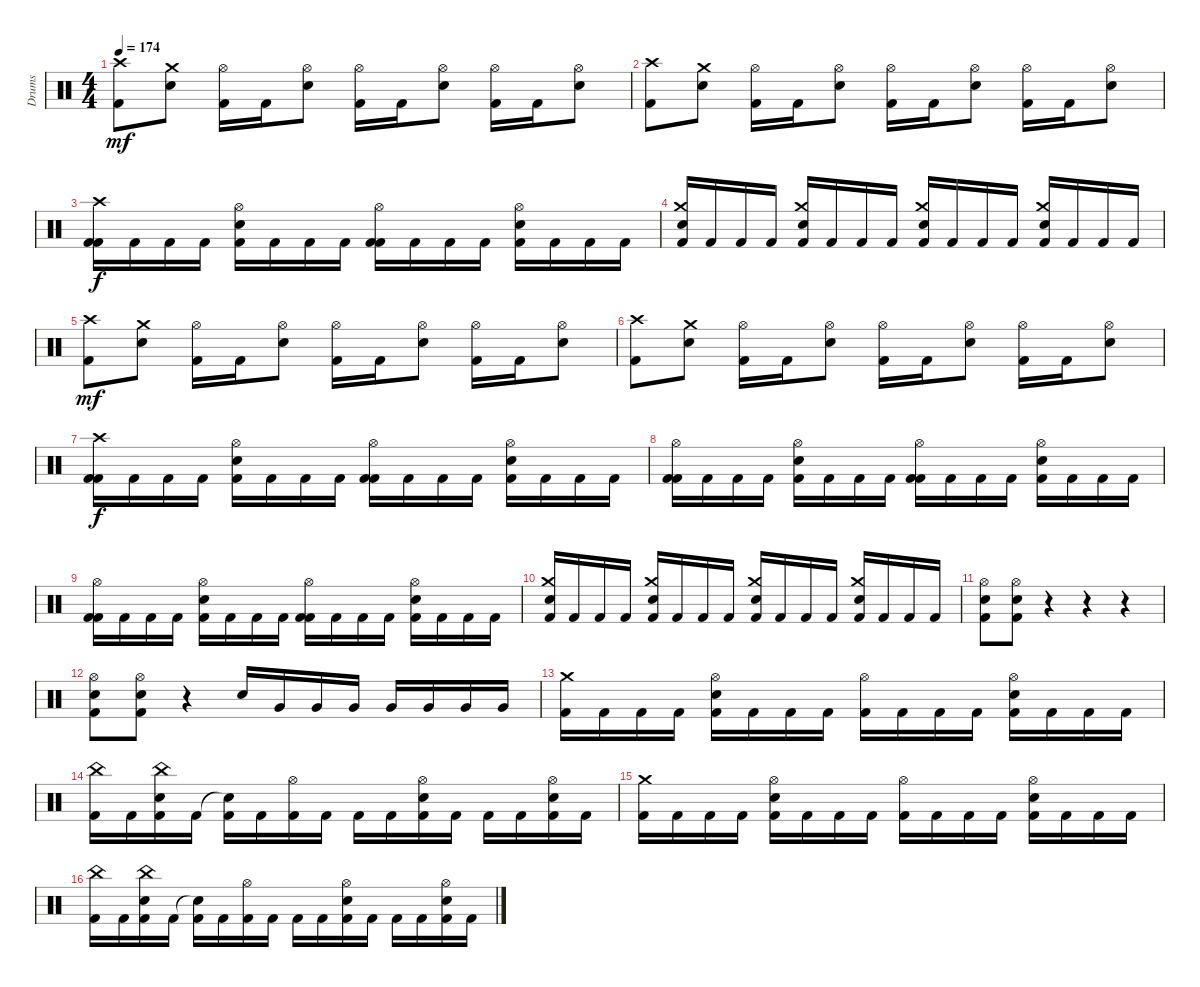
\track ("Drums" "Drums") {instrument percussion}
\staff {score}
\articulation defaults
\ts (4 4)
\tempo 174
\clef neutral
\ks c
("Crash high (hit)" "Kick (hit) 2").8{dy mf} ("Crash medium (hit)" "Electric Snare (hit)").8 ("Hi-Hat (open)" "Kick (hit) 2").16 "Kick (hit) 2".16 ("Hi-Hat (open)" "Electric Snare (hit)").8 ("Hi-Hat (open)" "Kick (hit) 2").16 "Kick (hit) 2".16 ("Hi-Hat (open)" "Electric Snare (hit)").8 ("Hi-Hat (open)" "Kick (hit) 2").16 "Kick (hit) 2".16 ("Hi-Hat (open)" "Electric Snare (hit)").8 |
("Crash high (hit)" "Kick (hit) 2").8 ("Crash medium (hit)" "Electric Snare (hit)").8 ("Hi-Hat (open)" "Kick (hit) 2").16 "Kick (hit) 2".16 ("Hi-Hat (open)" "Electric Snare (hit)").8 ("Hi-Hat (open)" "Kick (hit) 2").16 "Kick (hit) 2".16 ("Hi-Hat (open)" "Electric Snare (hit)").8 ("Hi-Hat (open)" "Kick (hit) 2").16 "Kick (hit) 2".16 ("Hi-Hat (open)" "Electric Snare (hit)").8 |
("Crash high (hit)" "Kick (hit) 2" "Kick (hit) 2").16{dy f} "Kick (hit) 2".16 "Kick (hit) 2".16 "Kick (hit) 2".16 ("Hi-Hat (open)" "Electric Snare (hit)" "Kick (hit) 2").16 "Kick (hit) 2".16 "Kick (hit) 2".16 "Kick (hit) 2".16 ("Hi-Hat (open)" "Kick (hit) 2" "Kick (hit) 2").16 "Kick (hit) 2".16 "Kick (hit) 2".16 "Kick (hit) 2".16 ("Hi-Hat (open)" "Electric Snare (hit)" "Kick (hit) 2").16 "Kick (hit) 2".16 "Kick (hit) 2".16 "Kick (hit) 2".16 |
("Crash medium (hit)" "Electric Snare (hit)" "Kick (hit) 2").16 "Kick (hit) 2".16 "Kick (hit) 2".16 "Kick (hit) 2".16 ("Crash medium (hit)" "Electric Snare (hit)" "Kick (hit) 2").16 "Kick (hit) 2".16 "Kick (hit) 2".16 "Kick (hit) 2".16 ("Crash medium (hit)" "Electric Snare (hit)" "Kick (hit) 2").16 "Kick (hit) 2".16 "Kick (hit) 2".16 "Kick (hit) 2".16 ("Crash medium (hit)" "Electric Snare (hit)" "Kick (hit) 2").16 "Kick (hit) 2".16 "Kick (hit) 2".16 "Kick (hit) 2".16 |
("Crash high (hit)" "Kick (hit) 2").8{dy mf} ("Crash medium (hit)" "Electric Snare (hit)").8 ("Hi-Hat (open)" "Kick (hit) 2").16 "Kick (hit) 2".16 ("Hi-Hat (open)" "Electric Snare (hit)").8 ("Hi-Hat (open)" "Kick (hit) 2").16 "Kick (hit) 2".16 ("Hi-Hat (open)" "Electric Snare (hit)").8 ("Hi-Hat (open)" "Kick (hit) 2").16 "Kick (hit) 2".16 ("Hi-Hat (open)" "Electric Snare (hit)").8 |
("Crash high (hit)" "Kick (hit) 2").8 ("Crash medium (hit)" "Electric Snare (hit)").8 ("Hi-Hat (open)" "Kick (hit) 2").16 "Kick (hit) 2".16 ("Hi-Hat (open)" "Electric Snare (hit)").8 ("Hi-Hat (open)" "Kick (hit) 2").16 "Kick (hit) 2".16 ("Hi-Hat (open)" "Electric Snare (hit)").8 ("Hi-Hat (open)" "Kick (hit) 2").16 "Kick (hit) 2".16 ("Hi-Hat (open)" "Electric Snare (hit)").8 |
("Crash high (hit)" "Kick (hit) 2" "Kick (hit) 2").16{dy f} "Kick (hit) 2".16 "Kick (hit) 2".16 "Kick (hit) 2".16 ("Hi-Hat (open)" "Electric Snare (hit)" "Kick (hit) 2").16 "Kick (hit) 2".16 "Kick (hit) 2".16 "Kick (hit) 2".16 ("Hi-Hat (open)" "Kick (hit) 2" "Kick (hit) 2").16 "Kick (hit) 2".16 "Kick (hit) 2".16 "Kick (hit) 2".16 ("Hi-Hat (open)" "Electric Snare (hit)" "Kick (hit) 2").16 "Kick (hit) 2".16 "Kick (hit) 2".16 "Kick (hit) 2".16 |
("Hi-Hat (open)" "Kick (hit) 2" "Kick (hit) 2").16 "Kick (hit) 2".16 "Kick (hit) 2".16 "Kick (hit) 2".16 ("Hi-Hat (open)" "Electric Snare (hit)" "Kick (hit) 2").16 "Kick (hit) 2".16 "Kick (hit) 2".16 "Kick (hit) 2".16 ("Hi-Hat (open)" "Kick (hit) 2" "Kick (hit) 2").16 "Kick (hit) 2".16 "Kick (hit) 2".16 "Kick (hit) 2".16 ("Hi-Hat (open)" "Electric Snare (hit)" "Kick (hit) 2").16 "Kick (hit) 2".16 "Kick (hit) 2".16 "Kick (hit) 2".16 |
("Hi-Hat (open)" "Kick (hit) 2" "Kick (hit) 2").16 "Kick (hit) 2".16 "Kick (hit) 2".16 "Kick (hit) 2".16 ("Hi-Hat (open)" "Electric Snare (hit)" "Kick (hit) 2").16 "Kick (hit) 2".16 "Kick (hit) 2".16 "Kick (hit) 2".16 ("Hi-Hat (open)" "Kick (hit) 2" "Kick (hit) 2").16 "Kick (hit) 2".16 "Kick (hit) 2".16 "Kick (hit) 2".16 ("Hi-Hat (open)" "Electric Snare (hit)" "Kick (hit) 2").16 "Kick (hit) 2".16 "Kick (hit) 2".16 "Kick (hit) 2".16 |
("Crash medium (hit)" "Electric Snare (hit)" "Kick (hit) 2").16 "Kick (hit) 2".16 "Kick (hit) 2".16 "Kick (hit) 2".16 ("Crash medium (hit)" "Electric Snare (hit)" "Kick (hit) 2").16 "Kick (hit) 2".16 "Kick (hit) 2".16 "Kick (hit) 2".16 ("Crash medium (hit)" "Electric Snare (hit)" "Kick (hit) 2").16 "Kick (hit) 2".16 "Kick (hit) 2".16 "Kick (hit) 2".16 ("Crash medium (hit)" "Electric Snare (hit)" "Kick (hit) 2").16 "Kick (hit) 2".16 "Kick (hit) 2".16 "Kick (hit) 2".16 |
("Hi-Hat (open)" "Electric Snare (hit)" "Kick (hit) 2").8 ("Hi-Hat (open)" "Electric Snare (hit)" "Kick (hit) 2").8 r.4 r.4 r.4 |
("Hi-Hat (open)" "Electric Snare (hit)" "Kick (hit) 2").8 ("Hi-Hat (open)" "Electric Snare (hit)" "Kick (hit) 2").8 r.4 "Electric Snare (hit)".16 "Very Low Tom (hit)".16 "Very Low Tom (hit)".16 "Very Low Tom (hit)".16 "Very Low Tom (hit)".16 "Very Low Tom (hit)".16 "Very Low Tom (hit)".16 "Very Low Tom (hit)".16 |
("Crash medium (hit)" "Kick (hit) 2").16 "Kick (hit) 2".16 "Kick (hit) 2".16 "Kick (hit) 2".16 ("Hi-Hat (open)" "Kick (hit) 2" "Electric Snare (hit)").16 "Kick (hit) 2".16 "Kick (hit) 2".16 "Kick (hit) 2".16 ("Hi-Hat (open)" "Kick (hit) 2").16 "Kick (hit) 2".16 "Kick (hit) 2".16 "Kick (hit) 2".16 ("Hi-Hat (open)" "Kick (hit) 2" "Electric Snare (hit)").16 "Kick (hit) 2".16 "Kick (hit) 2".16 "Kick (hit) 2".16 |
("China (hit)" "Kick (hit) 2").16 "Kick (hit) 2".16 ("China (hit)" "Kick (hit) 2" "Electric Snare (hit)").16 "Kick (hit) 2".16 ("Snare (hit)"{t} "Kick (hit) 2").16 "Kick (hit) 2".16 ("Hi-Hat (open)" "Kick (hit) 2").16 "Kick (hit) 2".16 "Kick (hit) 2".16 "Kick (hit) 2".16 ("Hi-Hat (open)" "Kick (hit) 2" "Electric Snare (hit)").16 "Kick (hit) 2".16 "Kick (hit) 2".16 "Kick (hit) 2".16 ("Hi-Hat (open)" "Kick (hit) 2" "Electric Snare (hit)").16 "Kick (hit) 2".16 |
("Crash medium (hit)" "Kick (hit) 2").16 "Kick (hit) 2".16 "Kick (hit) 2".16 "Kick (hit) 2".16 ("Hi-Hat (open)" "Kick (hit) 2" "Electric Snare (hit)").16 "Kick (hit) 2".16 "Kick (hit) 2".16 "Kick (hit) 2".16 ("Hi-Hat (open)" "Kick (hit) 2").16 "Kick (hit) 2".16 "Kick (hit) 2".16 "Kick (hit) 2".16 ("Hi-Hat (open)" "Kick (hit) 2" "Electric Snare (hit)").16 "Kick (hit) 2".16 "Kick (hit) 2".16 "Kick (hit) 2".16 |
("China (hit)" "Kick (hit) 2").16 "Kick (hit) 2".16 ("China (hit)" "Kick (hit) 2" "Electric Snare (hit)").16 "Kick (hit) 2".16 ("Snare (hit)"{t} "Kick (hit) 2").16 "Kick (hit) 2".16 ("Hi-Hat (open)" "Kick (hit) 2").16 "Kick (hit) 2".16 "Kick (hit) 2".16 "Kick (hit) 2".16 ("Hi-Hat (open)" "Kick (hit) 2" "Electric Snare (hit)").16 "Kick (hit) 2".16 "Kick (hit) 2".16 "Kick (hit) 2".16 ("Hi-Hat (open)" "Kick (hit) 2" "Electric Snare (hit)").16 "Kick (hit) 2".16
